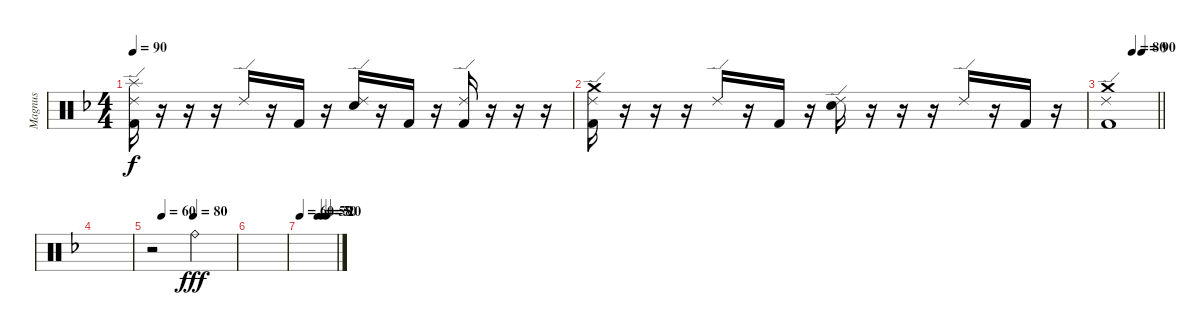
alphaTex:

\track ("Magnus" "Magnus") {instrument percussion}
\staff {score}
\articulation defaults
\ts (4 4)
\tempo 90
\clef neutral
\ks dminor
("Splash (hit)" "Ride (edge) 2" "Kick (hit) 2").16{dy f} r.16 r.16 r.16 "Ride (edge) 2".16 r.16 "Kick (hit) 2".16 r.16 ("Ride (edge) 2" "Snare (hit) 2").16 r.16 "Kick (hit) 2".16 r.16 ("Ride (edge) 2" "Kick (hit) 2").16 r.16 r.16 r.16 |
("Crash medium (hit)" "Ride (edge) 2" "Kick (hit) 2").16 r.16 r.16 r.16 "Ride (edge) 2".16 r.16 "Kick (hit) 2".16 r.16 ("Ride (edge) 2" "Snare (hit) 2").16 r.16 r.16 r.16 "Ride (edge) 2".16 r.16 "Kick (hit) 2".16 r.16 |
\tempo (80 0.5)
\tempo (90 0.6875)
\barLineRight lightlight
("Crash medium (hit)" "Ride (edge) 2" "Kick (hit) 2").1 |
|
\tempo (60 0.125)
\tempo (80 0.5)
r.2 "Ride (bell)".2{dy fff} |
|
\tempo 60
\tempo (58 0.5)
\tempo (50 0.625)
\tempo (20 0.75)
